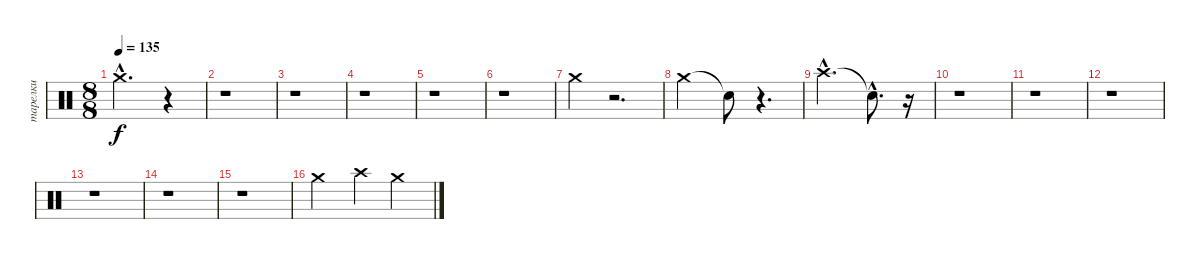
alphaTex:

\track ("тарелки" "тарелки") {instrument percussion}
\staff {score}
\articulation defaults
\ts (8 8)
\tempo 135
\clef neutral
\ks c "Crash medium (hit)"{hac}.2{d dy f}
r.4 |
r.1 |
r.1 |
r.1 |
r.1 |
r.1 |
"Crash medium (hit)".4 r.2{d} |
"Crash medium (hit)".2 "Snare (hit)"{t}.8 r.4{d} |
"Crash high (hit)"{hac}.2{d} "Snare (hit)"{hac t}.8{d} r.16 |
r.1 |
r.1 |
r.1 |
r.1 |
r.1 |
r.1 |
"Crash medium (hit)".2 "Crash high (hit)".4 "Crash medium (hit)".4
